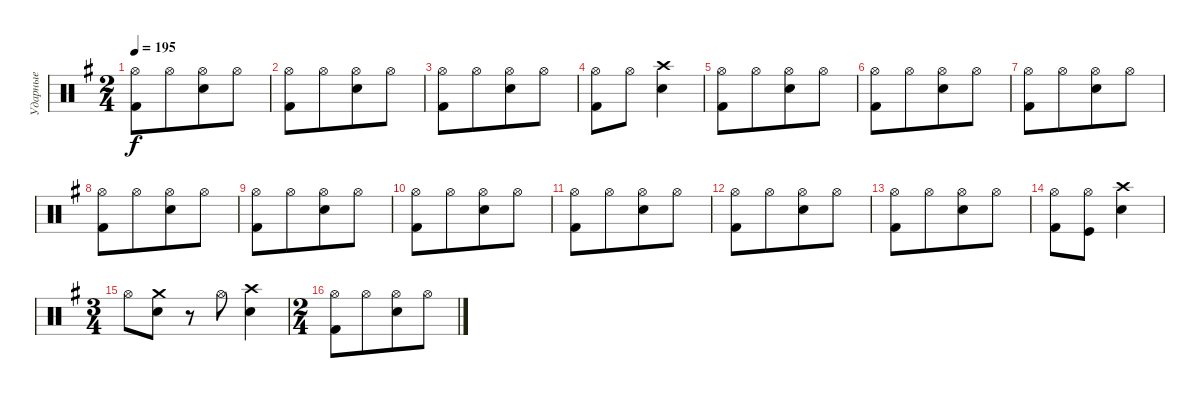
\track ("Ударные" "Ударные") {instrument percussion}
\staff {score}
\articulation defaults
\ts (2 4)
\tempo 195
\clef neutral
\ks eminor
("Kick (hit) 2" "Hi-Hat (open)").8{dy f} "Hi-Hat (open)".8{beam merge} ("Snare (hit) 2" "Hi-Hat (open)").8 "Hi-Hat (open)".8 |
("Kick (hit) 2" "Hi-Hat (open)").8 "Hi-Hat (open)".8{beam merge} ("Snare (hit) 2" "Hi-Hat (open)").8 "Hi-Hat (open)".8 |
("Kick (hit) 2" "Hi-Hat (open)").8 "Hi-Hat (open)".8{beam merge} ("Snare (hit) 2" "Hi-Hat (open)").8 "Hi-Hat (open)".8 |
("Kick (hit) 2" "Hi-Hat (open)").8 "Hi-Hat (open)".8 ("Snare (hit) 2" "Crash high (hit)").4 |
("Kick (hit) 2" "Hi-Hat (open)").8 "Hi-Hat (open)".8{beam merge} ("Snare (hit) 2" "Hi-Hat (open)").8 "Hi-Hat (open)".8 |
("Kick (hit) 2" "Hi-Hat (open)").8 "Hi-Hat (open)".8{beam merge} ("Snare (hit) 2" "Hi-Hat (open)").8 "Hi-Hat (open)".8 |
("Kick (hit) 2" "Hi-Hat (open)").8 "Hi-Hat (open)".8{beam merge} ("Snare (hit) 2" "Hi-Hat (open)").8 "Hi-Hat (open)".8 |
("Kick (hit) 2" "Hi-Hat (open)").8 "Hi-Hat (open)".8{beam merge} ("Snare (hit) 2" "Hi-Hat (open)").8 "Hi-Hat (open)".8 |
("Kick (hit) 2" "Hi-Hat (open)").8 "Hi-Hat (open)".8{beam merge} ("Snare (hit) 2" "Hi-Hat (open)").8 "Hi-Hat (open)".8 |
("Kick (hit) 2" "Hi-Hat (open)").8 "Hi-Hat (open)".8{beam merge} ("Snare (hit) 2" "Hi-Hat (open)").8 "Hi-Hat (open)".8 |
("Kick (hit) 2" "Hi-Hat (open)").8 "Hi-Hat (open)".8{beam merge} ("Snare (hit) 2" "Hi-Hat (open)").8 "Hi-Hat (open)".8 |
("Kick (hit) 2" "Hi-Hat (open)").8 "Hi-Hat (open)".8{beam merge} ("Snare (hit) 2" "Hi-Hat (open)").8 "Hi-Hat (open)".8 |
("Kick (hit) 2" "Hi-Hat (open)").8 "Hi-Hat (open)".8{beam merge} ("Snare (hit) 2" "Hi-Hat (open)").8 "Hi-Hat (open)".8 |
("Kick (hit) 2" "Hi-Hat (open)").8 ("Hi-Hat (open)" "Kick (hit)").8 ("Snare (hit) 2" "Crash high (hit)").4 |
\ts (3 4)
"Hi-Hat (open)".8 ("Snare (hit) 2" "Crash medium (hit)").8 r.8 "Hi-Hat (open)".8 ("Snare (hit) 2" "Crash high (hit)").4 |
\ts (2 4)
("Kick (hit) 2" "Hi-Hat (open)").8 "Hi-Hat (open)".8{beam merge} ("Snare (hit) 2" "Hi-Hat (open)").8 "Hi-Hat (open)".8
